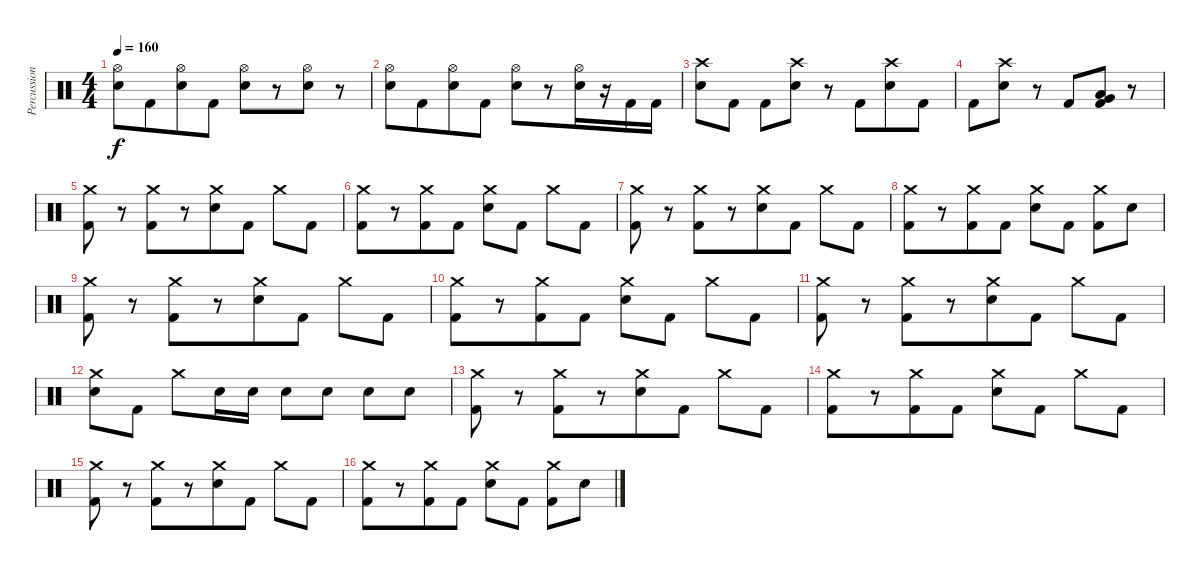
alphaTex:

\track ("Percussion" "Percussion") {instrument percussion}
\staff {score}
\articulation defaults
\ts (4 4)
\tempo 160
\clef neutral
\ks c
("Hi-Hat (open)" "Electric Snare (hit)").8{dy f} "Kick (hit) 2".8{beam merge} ("Hi-Hat (open)" "Electric Snare (hit)").8{beam merge} "Kick (hit) 2".8 ("Hi-Hat (open)" "Electric Snare (hit)").8{beam merge} r.8 ("Hi-Hat (open)" "Electric Snare (hit)").8{beam merge} r.8 |
("Hi-Hat (open)" "Electric Snare (hit)").8 "Kick (hit) 2".8{beam merge} ("Hi-Hat (open)" "Electric Snare (hit)").8{beam merge} "Kick (hit) 2".8 ("Hi-Hat (open)" "Electric Snare (hit)").8{beam merge} r.8 ("Hi-Hat (open)" "Electric Snare (hit)").16{beam merge} r.16{beam merge} "Kick (hit) 2".16 "Kick (hit) 2".16 |
("Crash high (hit)" "Electric Snare (hit)").8 "Kick (hit) 2".8 "Kick (hit) 2".8 ("Crash high (hit)" "Electric Snare (hit)").8 r.8 "Kick (hit) 2".8{beam merge} ("Crash high (hit)" "Electric Snare (hit)").8{beam merge} "Kick (hit) 2".8 |
"Kick (hit) 2".8{beam merge} ("Crash high (hit)" "Electric Snare (hit)").8 r.8 "Kick (hit) 2".8{beam merge} ("Low Floor Tom (hit)" "Very Low Tom (hit)" "Kick (hit) 2").8{beam merge} r.8 |
("Crash medium (hit)" "Kick (hit) 2").8 r.8 ("Crash medium (hit)" "Kick (hit) 2").8{beam merge} r.8 ("Crash medium (hit)" "Electric Snare (hit)").8{beam merge} "Kick (hit) 2".8 "Crash medium (hit)".8{beam merge} "Kick (hit) 2".8 |
("Crash medium (hit)" "Kick (hit) 2").8{beam merge} r.8 ("Crash medium (hit)" "Kick (hit) 2").8{beam merge} "Kick (hit) 2".8 ("Crash medium (hit)" "Electric Snare (hit)").8 "Kick (hit) 2".8 "Crash medium (hit)".8{beam merge} "Kick (hit) 2".8 |
("Crash medium (hit)" "Kick (hit) 2").8 r.8 ("Crash medium (hit)" "Kick (hit) 2").8{beam merge} r.8 ("Crash medium (hit)" "Electric Snare (hit)").8{beam merge} "Kick (hit) 2".8 "Crash medium (hit)".8{beam merge} "Kick (hit) 2".8 |
("Crash medium (hit)" "Kick (hit) 2").8{beam merge} r.8 ("Crash medium (hit)" "Kick (hit) 2").8{beam merge} "Kick (hit) 2".8 ("Crash medium (hit)" "Electric Snare (hit)").8 "Kick (hit) 2".8 ("Crash medium (hit)" "Kick (hit) 2").8 "Electric Snare (hit)".8 |
("Crash medium (hit)" "Kick (hit) 2").8 r.8 ("Crash medium (hit)" "Kick (hit) 2").8{beam merge} r.8 ("Crash medium (hit)" "Electric Snare (hit)").8{beam merge} "Kick (hit) 2".8 "Crash medium (hit)".8{beam merge} "Kick (hit) 2".8 |
("Crash medium (hit)" "Kick (hit) 2").8{beam merge} r.8 ("Crash medium (hit)" "Kick (hit) 2").8{beam merge} "Kick (hit) 2".8 ("Crash medium (hit)" "Electric Snare (hit)").8 "Kick (hit) 2".8 "Crash medium (hit)".8{beam merge} "Kick (hit) 2".8 |
("Crash medium (hit)" "Kick (hit) 2").8 r.8 ("Crash medium (hit)" "Kick (hit) 2").8{beam merge} r.8 ("Crash medium (hit)" "Electric Snare (hit)").8{beam merge} "Kick (hit) 2".8 "Crash medium (hit)".8{beam merge} "Kick (hit) 2".8 |
("Crash medium (hit)" "Electric Snare (hit)").8{beam merge} "Kick (hit) 2".8 "Crash medium (hit)".8 "Electric Snare (hit)".16 "Electric Snare (hit)".16 "Electric Snare (hit)".8{beam merge} "Electric Snare (hit)".8 "Electric Snare (hit)".8 "Electric Snare (hit)".8 |
("Crash medium (hit)" "Kick (hit) 2").8 r.8 ("Crash medium (hit)" "Kick (hit) 2").8{beam merge} r.8 ("Crash medium (hit)" "Electric Snare (hit)").8{beam merge} "Kick (hit) 2".8 "Crash medium (hit)".8{beam merge} "Kick (hit) 2".8 |
("Crash medium (hit)" "Kick (hit) 2").8{beam merge} r.8 ("Crash medium (hit)" "Kick (hit) 2").8{beam merge} "Kick (hit) 2".8 ("Crash medium (hit)" "Electric Snare (hit)").8 "Kick (hit) 2".8 "Crash medium (hit)".8{beam merge} "Kick (hit) 2".8 |
("Crash medium (hit)" "Kick (hit) 2").8 r.8 ("Crash medium (hit)" "Kick (hit) 2").8{beam merge} r.8 ("Crash medium (hit)" "Electric Snare (hit)").8{beam merge} "Kick (hit) 2".8 "Crash medium (hit)".8{beam merge} "Kick (hit) 2".8 |
("Crash medium (hit)" "Kick (hit) 2").8{beam merge} r.8 ("Crash medium (hit)" "Kick (hit) 2").8{beam merge} "Kick (hit) 2".8 ("Crash medium (hit)" "Electric Snare (hit)").8 "Kick (hit) 2".8 ("Crash medium (hit)" "Kick (hit) 2").8 "Electric Snare (hit)".8
